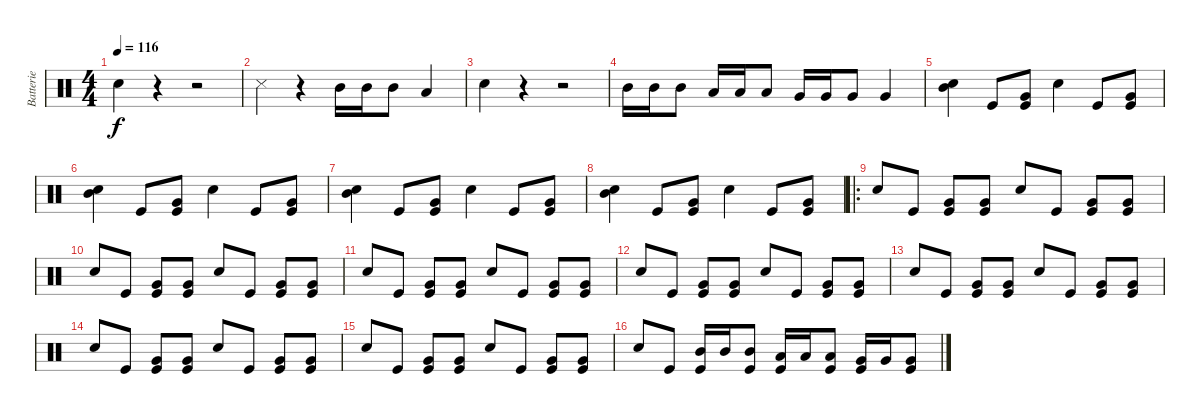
\track ("Batterie" "Batterie") {instrument percussion}
\staff {score}
\articulation defaults
\ts (4 4)
\tempo 116
\clef neutral
\ks c "Snare (hit) 2".4{dy f}
r.4 r.2 |
"Snare (side stick) 3".4 r.4 "Mid Tom (hit)".16 "Mid Tom (hit)".16 "Mid Tom (hit)".8 "Low Tom (hit)".4 |
"Snare (hit) 2".4 r.4 r.2 |
"Mid Tom (hit)".16 "Mid Tom (hit)".16 "Mid Tom (hit)".8 "Low Tom (hit)".16 "Low Tom (hit)".16 "Low Tom (hit)".8 "Very Low Tom (hit)".16 "Very Low Tom (hit)".16 "Very Low Tom (hit)".8 "Very Low Tom (hit)".4 |
("Mid Tom (hit)" "Snare (hit) 2").4 "Kick (hit)".8 ("Very Low Tom (hit)" "Kick (hit)").8 "Snare (hit) 2".4 "Kick (hit)".8 ("Very Low Tom (hit)" "Kick (hit)").8 |
("Mid Tom (hit)" "Snare (hit) 2").4 "Kick (hit)".8 ("Very Low Tom (hit)" "Kick (hit)").8 "Snare (hit) 2".4 "Kick (hit)".8 ("Very Low Tom (hit)" "Kick (hit)").8 |
("Mid Tom (hit)" "Snare (hit) 2").4 "Kick (hit)".8 ("Very Low Tom (hit)" "Kick (hit)").8 "Snare (hit) 2".4 "Kick (hit)".8 ("Very Low Tom (hit)" "Kick (hit)").8 |
("Mid Tom (hit)" "Snare (hit) 2").4 "Kick (hit)".8 ("Very Low Tom (hit)" "Kick (hit)").8 "Snare (hit) 2".4 "Kick (hit)".8 ("Very Low Tom (hit)" "Kick (hit)").8 |
\ro "Snare (hit) 2".8 "Kick (hit)".8
("Very Low Tom (hit)" "Kick (hit)").8 ("Very Low Tom (hit)" "Kick (hit)").8 "Snare (hit) 2".8 "Kick (hit)".8 ("Very Low Tom (hit)" "Kick (hit)").8 ("Very Low Tom (hit)" "Kick (hit)").8 |
"Snare (hit) 2".8 "Kick (hit)".8 ("Very Low Tom (hit)" "Kick (hit)").8 ("Very Low Tom (hit)" "Kick (hit)").8 "Snare (hit) 2".8 "Kick (hit)".8 ("Very Low Tom (hit)" "Kick (hit)").8 ("Very Low Tom (hit)" "Kick (hit)").8 |
"Snare (hit) 2".8 "Kick (hit)".8 ("Very Low Tom (hit)" "Kick (hit)").8 ("Very Low Tom (hit)" "Kick (hit)").8 "Snare (hit) 2".8 "Kick (hit)".8 ("Very Low Tom (hit)" "Kick (hit)").8 ("Very Low Tom (hit)" "Kick (hit)").8 |
"Snare (hit) 2".8 "Kick (hit)".8 ("Very Low Tom (hit)" "Kick (hit)").8 ("Very Low Tom (hit)" "Kick (hit)").8 "Snare (hit) 2".8 "Kick (hit)".8 ("Very Low Tom (hit)" "Kick (hit)").8 ("Very Low Tom (hit)" "Kick (hit)").8 |
"Snare (hit) 2".8 "Kick (hit)".8 ("Very Low Tom (hit)" "Kick (hit)").8 ("Very Low Tom (hit)" "Kick (hit)").8 "Snare (hit) 2".8 "Kick (hit)".8 ("Very Low Tom (hit)" "Kick (hit)").8 ("Very Low Tom (hit)" "Kick (hit)").8 |
"Snare (hit) 2".8 "Kick (hit)".8 ("Very Low Tom (hit)" "Kick (hit)").8 ("Very Low Tom (hit)" "Kick (hit)").8 "Snare (hit) 2".8 "Kick (hit)".8 ("Very Low Tom (hit)" "Kick (hit)").8 ("Very Low Tom (hit)" "Kick (hit)").8 |
"Snare (hit) 2".8 "Kick (hit)".8 ("Very Low Tom (hit)" "Kick (hit)").8 ("Very Low Tom (hit)" "Kick (hit)").8 "Snare (hit) 2".8 "Kick (hit)".8 ("Very Low Tom (hit)" "Kick (hit)").8 ("Very Low Tom (hit)" "Kick (hit)").8 |
"Snare (hit) 2".8 "Kick (hit)".8 ("Mid Tom (hit)" "Kick (hit)").16 "Mid Tom (hit)".16 ("Mid Tom (hit)" "Kick (hit)").8 ("Low Tom (hit)" "Kick (hit)").16 "Low Tom (hit)".16 ("Low Tom (hit)" "Kick (hit)").8 ("Very Low Tom (hit)" "Kick (hit)").16 "Very Low Tom (hit)".16 ("Very Low Tom (hit)" "Kick (hit)").8
